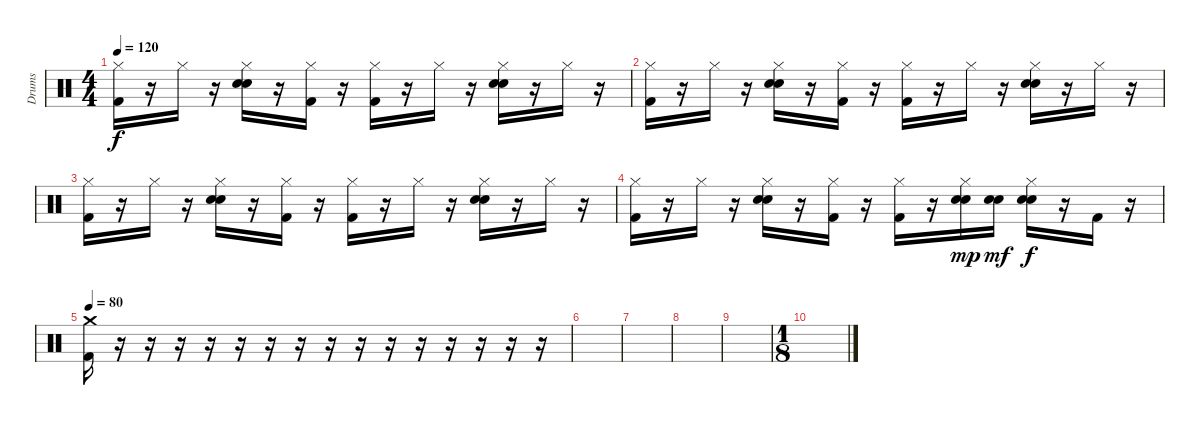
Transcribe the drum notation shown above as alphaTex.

\track ("Drums" "Drums") {instrument percussion}
\staff {score}
\articulation defaults
\ts (4 4)
\tempo 120
\clef neutral
\ks c
("Hi-Hat (closed)" "Kick (hit) 2").16{dy f} r.16 "Hi-Hat (closed)".16 r.16 ("Hi-Hat (closed)" "Electric Snare (hit)" "Snare (hit) 2").16 r.16 ("Hi-Hat (closed)" "Kick (hit) 2").16 r.16 ("Hi-Hat (closed)" "Kick (hit) 2").16 r.16 "Hi-Hat (closed)".16 r.16 ("Hi-Hat (closed)" "Electric Snare (hit)" "Snare (hit) 2").16 r.16 "Hi-Hat (closed)".16 r.16 |
("Hi-Hat (closed)" "Kick (hit) 2").16 r.16 "Hi-Hat (closed)".16 r.16 ("Hi-Hat (closed)" "Electric Snare (hit)" "Snare (hit) 2").16 r.16 ("Hi-Hat (closed)" "Kick (hit) 2").16 r.16 ("Hi-Hat (closed)" "Kick (hit) 2").16 r.16 "Hi-Hat (closed)".16 r.16 ("Hi-Hat (closed)" "Electric Snare (hit)" "Snare (hit) 2").16 r.16 "Hi-Hat (closed)".16 r.16 |
("Hi-Hat (closed)" "Kick (hit) 2").16 r.16 "Hi-Hat (closed)".16 r.16 ("Hi-Hat (closed)" "Electric Snare (hit)" "Snare (hit) 2").16 r.16 ("Hi-Hat (closed)" "Kick (hit) 2").16 r.16 ("Hi-Hat (closed)" "Kick (hit) 2").16 r.16 "Hi-Hat (closed)".16 r.16 ("Hi-Hat (closed)" "Electric Snare (hit)" "Snare (hit) 2").16 r.16 "Hi-Hat (closed)".16 r.16 |
("Hi-Hat (closed)" "Kick (hit) 2").16 r.16 "Hi-Hat (closed)".16 r.16 ("Hi-Hat (closed)" "Electric Snare (hit)" "Snare (hit) 2").16 r.16 ("Hi-Hat (closed)" "Kick (hit) 2").16 r.16 ("Hi-Hat (closed)" "Kick (hit) 2").16 r.16 ("Hi-Hat (closed)" "Electric Snare (hit)" "Snare (hit) 2").16{dy mp} ("Electric Snare (hit)" "Snare (hit) 2").16{dy mf} ("Hi-Hat (closed)" "Electric Snare (hit)" "Snare (hit) 2").16{dy f} r.16 "Kick (hit) 2".16 r.16 |
\tempo 80
("Crash medium (hit)" "Kick (hit) 2").16 r.16 r.16 r.16 r.16 r.16 r.16 r.16 r.16 r.16 r.16 r.16 r.16 r.16 r.16 r.16 |
|
|
|
|
\ts (1 8)
